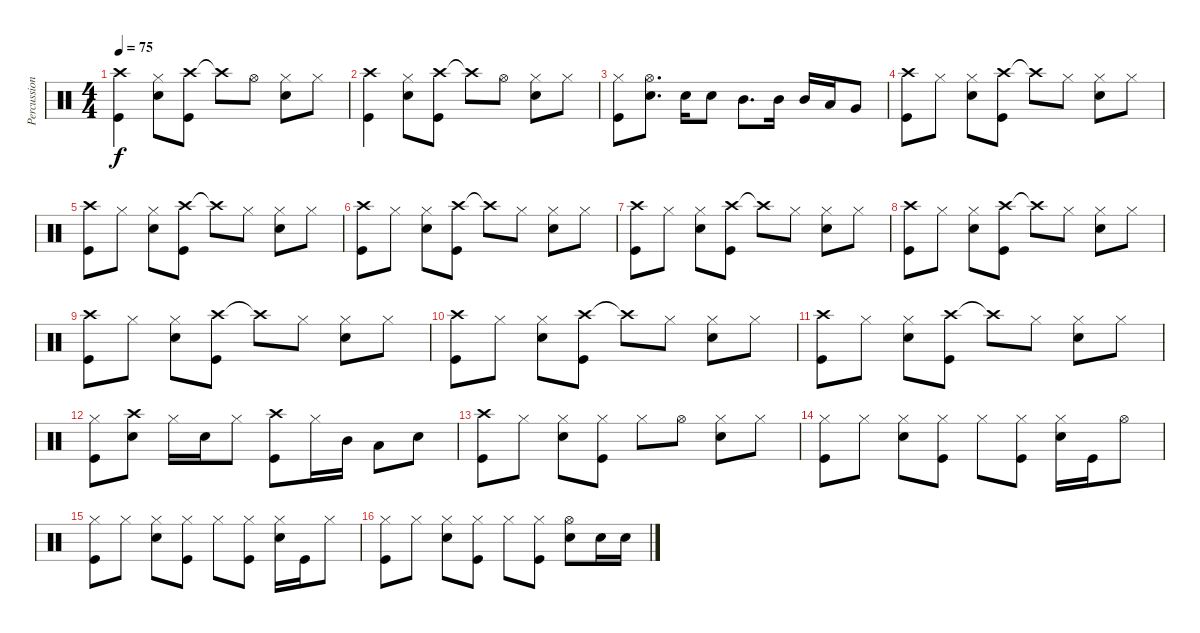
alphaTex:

\track ("Percussion 1" "Percussion") {instrument percussion}
\staff {score}
\articulation defaults
\ts (4 4)
\tempo 75
\clef neutral
\ks c
("Crash high (hit)" "Kick (hit)").4{dy f} ("Hi-Hat (closed)" "Snare (hit) 2").8 ("Crash high (hit)" "Kick (hit)").8 "Crash high (hit)"{t}.8 "Hi-Hat (open)".8 ("Hi-Hat (closed)" "Snare (hit) 2").8 "Hi-Hat (closed)".8 |
("Crash high (hit)" "Kick (hit)").4 ("Hi-Hat (closed)" "Snare (hit) 2").8 ("Crash high (hit)" "Kick (hit)").8 "Crash high (hit)"{t}.8 "Hi-Hat (open)".8 ("Hi-Hat (closed)" "Snare (hit) 2").8 "Hi-Hat (closed)".8 |
("Hi-Hat (closed)" "Kick (hit)").8 ("Hi-Hat (open)" "Snare (hit) 2").8{d} "Snare (hit) 2".16 "Snare (hit) 2".8 "Mid Tom (hit)".8{d} "Mid Tom (hit)".16 "Mid Tom (hit)".16 "Low Tom (hit)".16 "Very Low Tom (hit)".8 |
("Crash high (hit)" "Kick (hit)").8 "Hi-Hat (closed)".8 ("Hi-Hat (closed)" "Snare (hit) 2").8 ("Crash high (hit)" "Kick (hit)").8 "Crash high (hit)"{t}.8 "Hi-Hat (closed)".8 ("Snare (hit) 2" "Hi-Hat (closed)").8 "Hi-Hat (closed)".8 |
("Crash high (hit)" "Kick (hit)").8 "Hi-Hat (closed)".8 ("Hi-Hat (closed)" "Snare (hit) 2").8 ("Crash high (hit)" "Kick (hit)").8 "Crash high (hit)"{t}.8 "Hi-Hat (closed)".8 ("Snare (hit) 2" "Hi-Hat (closed)").8 "Hi-Hat (closed)".8 |
("Crash high (hit)" "Kick (hit)").8 "Hi-Hat (closed)".8 ("Hi-Hat (closed)" "Snare (hit) 2").8 ("Crash high (hit)" "Kick (hit)").8 "Crash high (hit)"{t}.8 "Hi-Hat (closed)".8 ("Snare (hit) 2" "Hi-Hat (closed)").8 "Hi-Hat (closed)".8 |
("Crash high (hit)" "Kick (hit)").8 "Hi-Hat (closed)".8 ("Hi-Hat (closed)" "Snare (hit) 2").8 ("Crash high (hit)" "Kick (hit)").8 "Crash high (hit)"{t}.8 "Hi-Hat (closed)".8 ("Snare (hit) 2" "Hi-Hat (closed)").8 "Hi-Hat (closed)".8 |
("Crash high (hit)" "Kick (hit)").8 "Hi-Hat (closed)".8 ("Hi-Hat (closed)" "Snare (hit) 2").8 ("Crash high (hit)" "Kick (hit)").8 "Crash high (hit)"{t}.8 "Hi-Hat (closed)".8 ("Snare (hit) 2" "Hi-Hat (closed)").8 "Hi-Hat (closed)".8 |
("Crash high (hit)" "Kick (hit)").8 "Hi-Hat (closed)".8 ("Hi-Hat (closed)" "Snare (hit) 2").8 ("Crash high (hit)" "Kick (hit)").8 "Crash high (hit)"{t}.8 "Hi-Hat (closed)".8 ("Snare (hit) 2" "Hi-Hat (closed)").8 "Hi-Hat (closed)".8 |
("Crash high (hit)" "Kick (hit)").8 "Hi-Hat (closed)".8 ("Hi-Hat (closed)" "Snare (hit) 2").8 ("Crash high (hit)" "Kick (hit)").8 "Crash high (hit)"{t}.8 "Hi-Hat (closed)".8 ("Snare (hit) 2" "Hi-Hat (closed)").8 "Hi-Hat (closed)".8 |
("Crash high (hit)" "Kick (hit)").8 "Hi-Hat (closed)".8 ("Hi-Hat (closed)" "Snare (hit) 2").8 ("Crash high (hit)" "Kick (hit)").8 "Crash high (hit)"{t}.8 "Hi-Hat (closed)".8 ("Snare (hit) 2" "Hi-Hat (closed)").8 "Hi-Hat (closed)".8 |
("Hi-Hat (closed)" "Kick (hit)").8 ("Crash high (hit)" "Snare (hit) 2").8 "Hi-Hat (closed)".16 "Snare (hit) 2".16 "Hi-Hat (closed)".8 ("Kick (hit)" "Crash high (hit)").8 "Hi-Hat (closed)".16 "Mid Tom (hit)".16 "Low Tom (hit)".8 "Snare (hit) 2".8 |
("Crash high (hit)" "Kick (hit)").8 "Hi-Hat (closed)".8 ("Hi-Hat (closed)" "Snare (hit) 2").8 ("Hi-Hat (closed)" "Kick (hit)").8 "Hi-Hat (closed)".8 "Hi-Hat (open)".8 ("Hi-Hat (closed)" "Snare (hit) 2").8 "Hi-Hat (closed)".8 |
("Hi-Hat (closed)" "Kick (hit)").8 "Hi-Hat (closed)".8 ("Hi-Hat (closed)" "Snare (hit) 2").8 ("Hi-Hat (closed)" "Kick (hit)").8 "Hi-Hat (closed)".8 ("Hi-Hat (closed)" "Kick (hit)").8 ("Snare (hit) 2" "Hi-Hat (closed)").16 "Kick (hit)".16 "Hi-Hat (open)".8 |
("Hi-Hat (closed)" "Kick (hit)").8 "Hi-Hat (closed)".8 ("Hi-Hat (closed)" "Snare (hit) 2").8 ("Hi-Hat (closed)" "Kick (hit)").8 "Hi-Hat (closed)".8 ("Hi-Hat (closed)" "Kick (hit)").8 ("Snare (hit) 2" "Hi-Hat (closed)").16 "Kick (hit)".16 "Hi-Hat (closed)".8 |
("Hi-Hat (closed)" "Kick (hit)").8 "Hi-Hat (closed)".8 ("Hi-Hat (closed)" "Snare (hit) 2").8 ("Hi-Hat (closed)" "Kick (hit)").8 "Hi-Hat (closed)".8 ("Hi-Hat (closed)" "Kick (hit)").8 ("Hi-Hat (open)" "Snare (hit) 2").8 "Snare (hit) 2".16 "Snare (hit) 2".16
